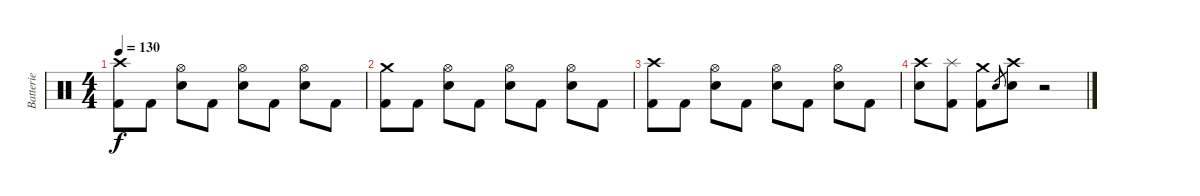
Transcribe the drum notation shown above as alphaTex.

\track ("Batterie" "Batterie") {instrument percussion}
\staff {score}
\articulation defaults
\ts (4 4)
\tempo 130
\clef neutral
\ks c
("Crash high (hit)" "Kick (hit) 2").8{dy f} "Kick (hit) 2".8 ("Hi-Hat (open)" "Snare (hit) 2").8 "Kick (hit) 2".8 ("Hi-Hat (open)" "Snare (hit) 2").8 "Kick (hit) 2".8 ("Hi-Hat (open)" "Snare (hit) 2").8 "Kick (hit) 2".8 |
("Crash medium (hit)" "Kick (hit) 2").8 "Kick (hit) 2".8 ("Hi-Hat (open)" "Snare (hit) 2").8 "Kick (hit) 2".8 ("Hi-Hat (open)" "Snare (hit) 2").8 "Kick (hit) 2".8 ("Hi-Hat (open)" "Snare (hit) 2").8 "Kick (hit) 2".8 |
("Crash high (hit)" "Kick (hit) 2").8 "Kick (hit) 2".8 ("Hi-Hat (open)" "Snare (hit) 2").8 "Kick (hit) 2".8 ("Hi-Hat (open)" "Snare (hit) 2").8 "Kick (hit) 2".8 ("Hi-Hat (open)" "Snare (hit) 2").8 "Kick (hit) 2".8 |
("Crash high (hit)" "Snare (hit) 2").8 ("Splash (hit)" "Kick (hit) 2").8 ("Crash medium (hit)" "Kick (hit) 2").8 "Snare (hit) 2".8{gr} ("Crash high (hit)" "Snare (hit) 2").8 r.2
